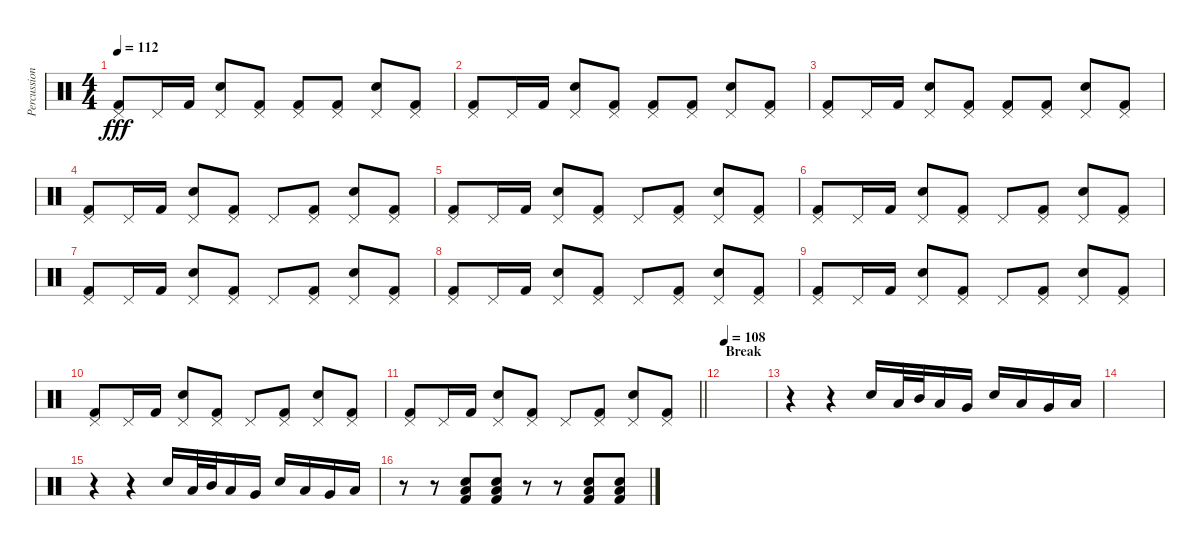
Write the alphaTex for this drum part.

\track ("Percussion" "Percussion") {instrument percussion}
\staff {score}
\articulation defaults
\ts (4 4)
\tempo 112
\clef neutral
\ks c
("Pedal Hi-Hat (hit)" "Kick (hit) 2").8{dy fff} "Pedal Hi-Hat (hit)".16 "Kick (hit) 2".16 ("Pedal Hi-Hat (hit)" "Electric Snare (hit)").8 ("Pedal Hi-Hat (hit)" "Kick (hit) 2").8 ("Pedal Hi-Hat (hit)" "Kick (hit) 2").8 ("Pedal Hi-Hat (hit)" "Kick (hit) 2").8 ("Pedal Hi-Hat (hit)" "Electric Snare (hit)").8 ("Pedal Hi-Hat (hit)" "Kick (hit) 2").8 |
("Pedal Hi-Hat (hit)" "Kick (hit) 2").8 "Pedal Hi-Hat (hit)".16 "Kick (hit) 2".16 ("Pedal Hi-Hat (hit)" "Electric Snare (hit)").8 ("Pedal Hi-Hat (hit)" "Kick (hit) 2").8 ("Pedal Hi-Hat (hit)" "Kick (hit) 2").8 ("Pedal Hi-Hat (hit)" "Kick (hit) 2").8 ("Pedal Hi-Hat (hit)" "Electric Snare (hit)").8 ("Pedal Hi-Hat (hit)" "Kick (hit) 2").8 |
("Pedal Hi-Hat (hit)" "Kick (hit) 2").8 "Pedal Hi-Hat (hit)".16 "Kick (hit) 2".16 ("Pedal Hi-Hat (hit)" "Electric Snare (hit)").8 ("Pedal Hi-Hat (hit)" "Kick (hit) 2").8 ("Pedal Hi-Hat (hit)" "Kick (hit) 2").8 ("Pedal Hi-Hat (hit)" "Kick (hit) 2").8 ("Pedal Hi-Hat (hit)" "Electric Snare (hit)").8 ("Pedal Hi-Hat (hit)" "Kick (hit) 2").8 |
("Pedal Hi-Hat (hit)" "Kick (hit) 2").8 "Pedal Hi-Hat (hit)".16 "Kick (hit) 2".16 ("Pedal Hi-Hat (hit)" "Electric Snare (hit)").8 ("Pedal Hi-Hat (hit)" "Kick (hit) 2").8 "Pedal Hi-Hat (hit)".8 ("Pedal Hi-Hat (hit)" "Kick (hit) 2").8 ("Pedal Hi-Hat (hit)" "Electric Snare (hit)").8 ("Pedal Hi-Hat (hit)" "Kick (hit) 2").8 |
("Pedal Hi-Hat (hit)" "Kick (hit) 2").8 "Pedal Hi-Hat (hit)".16 "Kick (hit) 2".16 ("Pedal Hi-Hat (hit)" "Electric Snare (hit)").8 ("Pedal Hi-Hat (hit)" "Kick (hit) 2").8 "Pedal Hi-Hat (hit)".8 ("Pedal Hi-Hat (hit)" "Kick (hit) 2").8 ("Pedal Hi-Hat (hit)" "Electric Snare (hit)").8 ("Pedal Hi-Hat (hit)" "Kick (hit) 2").8 |
("Pedal Hi-Hat (hit)" "Kick (hit) 2").8 "Pedal Hi-Hat (hit)".16 "Kick (hit) 2".16 ("Pedal Hi-Hat (hit)" "Electric Snare (hit)").8 ("Pedal Hi-Hat (hit)" "Kick (hit) 2").8 "Pedal Hi-Hat (hit)".8 ("Pedal Hi-Hat (hit)" "Kick (hit) 2").8 ("Pedal Hi-Hat (hit)" "Electric Snare (hit)").8 ("Pedal Hi-Hat (hit)" "Kick (hit) 2").8 |
("Pedal Hi-Hat (hit)" "Kick (hit) 2").8 "Pedal Hi-Hat (hit)".16 "Kick (hit) 2".16 ("Pedal Hi-Hat (hit)" "Electric Snare (hit)").8 ("Pedal Hi-Hat (hit)" "Kick (hit) 2").8 "Pedal Hi-Hat (hit)".8 ("Pedal Hi-Hat (hit)" "Kick (hit) 2").8 ("Pedal Hi-Hat (hit)" "Electric Snare (hit)").8 ("Pedal Hi-Hat (hit)" "Kick (hit) 2").8 |
("Pedal Hi-Hat (hit)" "Kick (hit) 2").8 "Pedal Hi-Hat (hit)".16 "Kick (hit) 2".16 ("Pedal Hi-Hat (hit)" "Electric Snare (hit)").8 ("Pedal Hi-Hat (hit)" "Kick (hit) 2").8 "Pedal Hi-Hat (hit)".8 ("Pedal Hi-Hat (hit)" "Kick (hit) 2").8 ("Pedal Hi-Hat (hit)" "Electric Snare (hit)").8 ("Pedal Hi-Hat (hit)" "Kick (hit) 2").8 |
("Pedal Hi-Hat (hit)" "Kick (hit) 2").8 "Pedal Hi-Hat (hit)".16 "Kick (hit) 2".16 ("Pedal Hi-Hat (hit)" "Electric Snare (hit)").8 ("Pedal Hi-Hat (hit)" "Kick (hit) 2").8 "Pedal Hi-Hat (hit)".8 ("Pedal Hi-Hat (hit)" "Kick (hit) 2").8 ("Pedal Hi-Hat (hit)" "Electric Snare (hit)").8 ("Pedal Hi-Hat (hit)" "Kick (hit) 2").8 |
("Pedal Hi-Hat (hit)" "Kick (hit) 2").8 "Pedal Hi-Hat (hit)".16 "Kick (hit) 2".16 ("Pedal Hi-Hat (hit)" "Electric Snare (hit)").8 ("Pedal Hi-Hat (hit)" "Kick (hit) 2").8 "Pedal Hi-Hat (hit)".8 ("Pedal Hi-Hat (hit)" "Kick (hit) 2").8 ("Pedal Hi-Hat (hit)" "Electric Snare (hit)").8 ("Pedal Hi-Hat (hit)" "Kick (hit) 2").8 |
\barLineRight lightlight
("Pedal Hi-Hat (hit)" "Kick (hit) 2").8 "Pedal Hi-Hat (hit)".16 "Kick (hit) 2".16 ("Pedal Hi-Hat (hit)" "Electric Snare (hit)").8 ("Pedal Hi-Hat (hit)" "Kick (hit) 2").8 "Pedal Hi-Hat (hit)".8 ("Pedal Hi-Hat (hit)" "Kick (hit) 2").8 ("Pedal Hi-Hat (hit)" "Electric Snare (hit)").8 ("Pedal Hi-Hat (hit)" "Kick (hit) 2").8 |
\section ("" "Break")
\tempo 108
|
r.4 r.4 "Snare (hit) 2".16 "Low Tom (hit)".32 "Mid Tom (hit)".32 "Low Tom (hit)".16 "Very Low Tom (hit)".16 "Snare (hit) 2".16 "Low Tom (hit)".16 "Very Low Tom (hit)".16 "Low Floor Tom (hit)".16 |
|
r.4 r.4 "Snare (hit) 2".16 "Low Tom (hit)".32 "Mid Tom (hit)".32 "Low Tom (hit)".16 "Very Low Tom (hit)".16 "Snare (hit) 2".16 "Low Tom (hit)".16 "Very Low Tom (hit)".16 "Low Floor Tom (hit)".16 |
r.8 r.8 ("Low Floor Tom (hit)" "Electric Snare (hit)" "Kick (hit) 2").8 ("Low Floor Tom (hit)" "Electric Snare (hit)" "Kick (hit) 2").8 r.8 r.8 ("Low Floor Tom (hit)" "Electric Snare (hit)" "Kick (hit) 2").8 ("Low Floor Tom (hit)" "Electric Snare (hit)" "Kick (hit) 2").8
